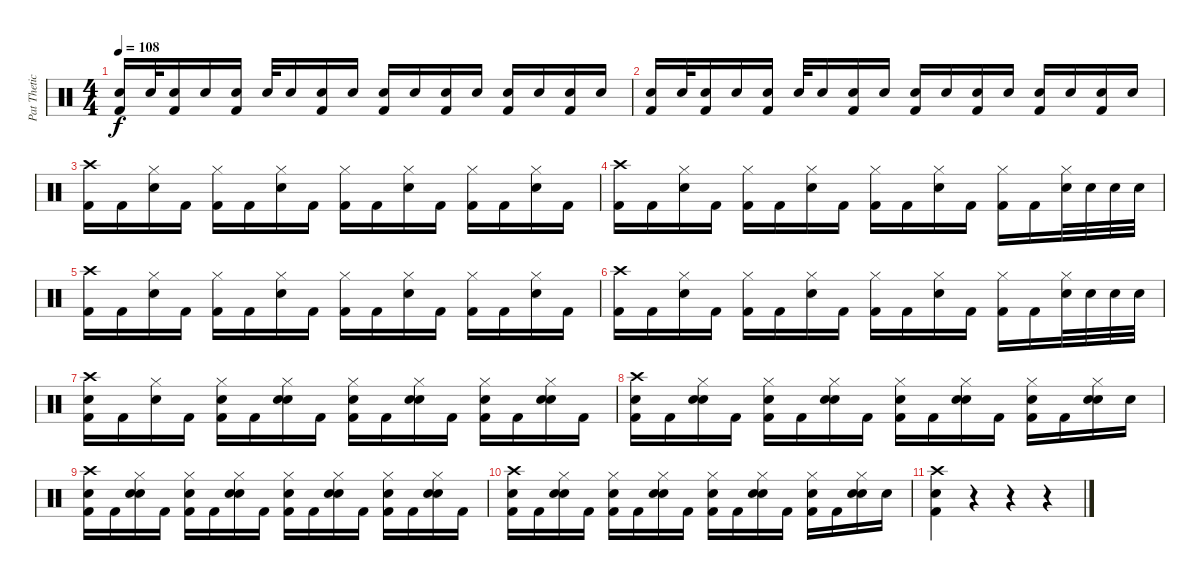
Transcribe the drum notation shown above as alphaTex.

\track ("Pat Thetic" "Pat Thetic") {instrument percussion}
\staff {score}
\articulation defaults
\ts (4 4)
\tempo 108
\clef neutral
\ks c
("Kick (hit) 2" "Snare (hit) 2").16{dy f} "Snare (hit) 2".32 ("Kick (hit) 2" "Snare (hit) 2").16 "Snare (hit) 2".16 ("Kick (hit) 2" "Snare (hit) 2").16 "Snare (hit) 2".32 "Snare (hit) 2".16 ("Kick (hit) 2" "Snare (hit) 2").16 "Snare (hit) 2".16 ("Kick (hit) 2" "Snare (hit) 2").16 "Snare (hit) 2".16 ("Kick (hit) 2" "Snare (hit) 2").16 "Snare (hit) 2".16 ("Kick (hit) 2" "Snare (hit) 2").16 "Snare (hit) 2".16 ("Kick (hit) 2" "Snare (hit) 2").16 "Snare (hit) 2".16 |
("Kick (hit) 2" "Snare (hit) 2").16 "Snare (hit) 2".32 ("Kick (hit) 2" "Snare (hit) 2").16 "Snare (hit) 2".16 ("Kick (hit) 2" "Snare (hit) 2").16 "Snare (hit) 2".32 "Snare (hit) 2".16 ("Kick (hit) 2" "Snare (hit) 2").16 "Snare (hit) 2".16 ("Kick (hit) 2" "Snare (hit) 2").16 "Snare (hit) 2".16 ("Kick (hit) 2" "Snare (hit) 2").16 "Snare (hit) 2".16 ("Kick (hit) 2" "Snare (hit) 2").16 "Snare (hit) 2".16 ("Kick (hit) 2" "Snare (hit) 2").16 "Snare (hit) 2".16 |
("Crash high (hit)" "Kick (hit) 2").16 "Kick (hit) 2".16 ("Hi-Hat (closed)" "Snare (hit) 2").16 "Kick (hit) 2".16 ("Hi-Hat (closed)" "Kick (hit) 2").16 "Kick (hit) 2".16 ("Hi-Hat (closed)" "Snare (hit) 2").16 "Kick (hit) 2".16 ("Hi-Hat (closed)" "Kick (hit) 2").16 "Kick (hit) 2".16 ("Hi-Hat (closed)" "Snare (hit) 2").16 "Kick (hit) 2".16 ("Hi-Hat (closed)" "Kick (hit) 2").16 "Kick (hit) 2".16 ("Hi-Hat (closed)" "Snare (hit) 2").16 "Kick (hit) 2".16 |
("Crash high (hit)" "Kick (hit) 2").16 "Kick (hit) 2".16 ("Hi-Hat (closed)" "Snare (hit) 2").16 "Kick (hit) 2".16 ("Hi-Hat (closed)" "Kick (hit) 2").16 "Kick (hit) 2".16 ("Hi-Hat (closed)" "Snare (hit) 2").16 "Kick (hit) 2".16 ("Hi-Hat (closed)" "Kick (hit) 2").16 "Kick (hit) 2".16 ("Hi-Hat (closed)" "Snare (hit) 2").16 "Kick (hit) 2".16 ("Hi-Hat (closed)" "Kick (hit) 2").16 "Kick (hit) 2".16 ("Hi-Hat (closed)" "Snare (hit) 2").32 "Snare (hit) 2".32 "Snare (hit) 2".32 "Snare (hit) 2".32 |
("Crash high (hit)" "Kick (hit) 2").16 "Kick (hit) 2".16 ("Hi-Hat (closed)" "Snare (hit) 2").16 "Kick (hit) 2".16 ("Hi-Hat (closed)" "Kick (hit) 2").16 "Kick (hit) 2".16 ("Hi-Hat (closed)" "Snare (hit) 2").16 "Kick (hit) 2".16 ("Hi-Hat (closed)" "Kick (hit) 2").16 "Kick (hit) 2".16 ("Hi-Hat (closed)" "Snare (hit) 2").16 "Kick (hit) 2".16 ("Hi-Hat (closed)" "Kick (hit) 2").16 "Kick (hit) 2".16 ("Hi-Hat (closed)" "Snare (hit) 2").16 "Kick (hit) 2".16 |
("Crash high (hit)" "Kick (hit) 2").16 "Kick (hit) 2".16 ("Hi-Hat (closed)" "Snare (hit) 2").16 "Kick (hit) 2".16 ("Hi-Hat (closed)" "Kick (hit) 2").16 "Kick (hit) 2".16 ("Hi-Hat (closed)" "Snare (hit) 2").16 "Kick (hit) 2".16 ("Hi-Hat (closed)" "Kick (hit) 2").16 "Kick (hit) 2".16 ("Hi-Hat (closed)" "Snare (hit) 2").16 "Kick (hit) 2".16 ("Hi-Hat (closed)" "Kick (hit) 2").16 "Kick (hit) 2".16 ("Hi-Hat (closed)" "Snare (hit) 2").32 "Snare (hit) 2".32 "Snare (hit) 2".32 "Snare (hit) 2".32 |
("Snare (hit) 2" "Crash high (hit)" "Kick (hit) 2").16 "Kick (hit) 2".16 ("Hi-Hat (closed)" "Snare (hit) 2").16 "Kick (hit) 2".16 ("Snare (hit) 2" "Hi-Hat (closed)" "Kick (hit) 2").16 "Kick (hit) 2".16 ("Snare (hit) 2" "Hi-Hat (closed)" "Snare (hit) 2").16 "Kick (hit) 2".16 ("Snare (hit) 2" "Hi-Hat (closed)" "Kick (hit) 2").16 "Kick (hit) 2".16 ("Snare (hit) 2" "Hi-Hat (closed)" "Snare (hit) 2").16 "Kick (hit) 2".16 ("Snare (hit) 2" "Hi-Hat (closed)" "Kick (hit) 2").16 "Kick (hit) 2".16 ("Snare (hit) 2" "Hi-Hat (closed)" "Snare (hit) 2").16 "Kick (hit) 2".16 |
("Snare (hit) 2" "Crash high (hit)" "Kick (hit) 2").16 "Kick (hit) 2".16 ("Snare (hit) 2" "Hi-Hat (closed)" "Snare (hit) 2").16 "Kick (hit) 2".16 ("Snare (hit) 2" "Hi-Hat (closed)" "Kick (hit) 2").16 "Kick (hit) 2".16 ("Snare (hit) 2" "Hi-Hat (closed)" "Snare (hit) 2").16 "Kick (hit) 2".16 ("Snare (hit) 2" "Hi-Hat (closed)" "Kick (hit) 2").16 "Kick (hit) 2".16 ("Snare (hit) 2" "Hi-Hat (closed)" "Snare (hit) 2").16 "Kick (hit) 2".16 ("Snare (hit) 2" "Hi-Hat (closed)" "Kick (hit) 2").16 "Kick (hit) 2".16 ("Snare (hit) 2" "Hi-Hat (closed)" "Snare (hit) 2").16 "Snare (hit) 2".16 |
("Snare (hit) 2" "Crash high (hit)" "Kick (hit) 2").16 "Kick (hit) 2".16 ("Snare (hit) 2" "Hi-Hat (closed)" "Snare (hit) 2").16 "Kick (hit) 2".16 ("Snare (hit) 2" "Hi-Hat (closed)" "Kick (hit) 2").16 "Kick (hit) 2".16 ("Snare (hit) 2" "Hi-Hat (closed)" "Snare (hit) 2").16 "Kick (hit) 2".16 ("Snare (hit) 2" "Hi-Hat (closed)" "Kick (hit) 2").16 "Kick (hit) 2".16 ("Snare (hit) 2" "Hi-Hat (closed)" "Snare (hit) 2").16 "Kick (hit) 2".16 ("Snare (hit) 2" "Hi-Hat (closed)" "Kick (hit) 2").16 "Kick (hit) 2".16 ("Snare (hit) 2" "Hi-Hat (closed)" "Snare (hit) 2").16 "Kick (hit) 2".16 |
("Snare (hit) 2" "Crash high (hit)" "Kick (hit) 2").16 "Kick (hit) 2".16 ("Snare (hit) 2" "Hi-Hat (closed)" "Snare (hit) 2").16 "Kick (hit) 2".16 ("Snare (hit) 2" "Hi-Hat (closed)" "Kick (hit) 2").16 "Kick (hit) 2".16 ("Snare (hit) 2" "Hi-Hat (closed)" "Snare (hit) 2").16 "Kick (hit) 2".16 ("Snare (hit) 2" "Hi-Hat (closed)" "Kick (hit) 2").16 "Kick (hit) 2".16 ("Snare (hit) 2" "Hi-Hat (closed)" "Snare (hit) 2").16 "Kick (hit) 2".16 ("Snare (hit) 2" "Hi-Hat (closed)" "Kick (hit) 2").16 "Kick (hit) 2".16 ("Snare (hit) 2" "Hi-Hat (closed)" "Snare (hit) 2").16 "Snare (hit) 2".16 |
("Snare (hit) 2" "Crash high (hit)" "Kick (hit) 2").4 r.4 r.4 r.4
